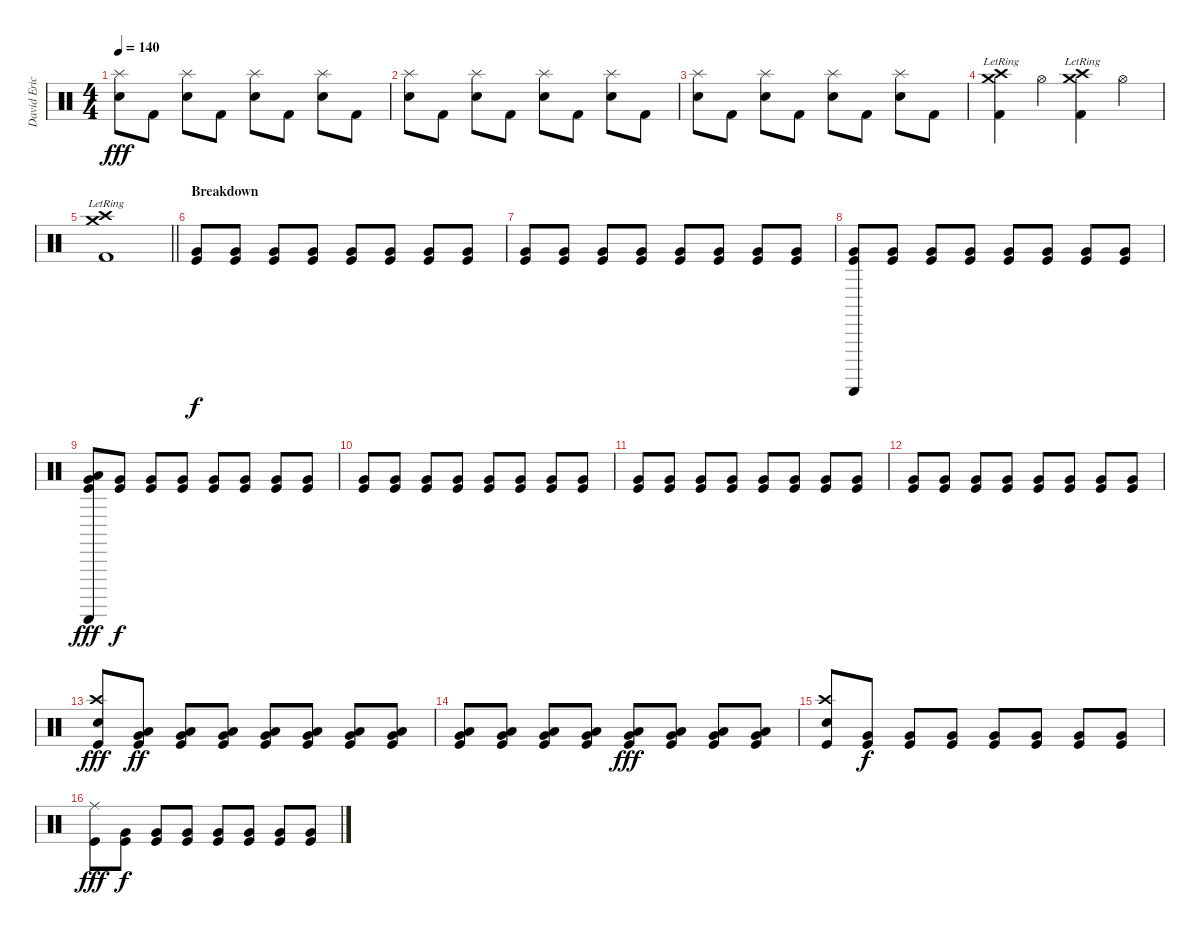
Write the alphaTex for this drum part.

\track ("David Eric Grohl" "David Eric") {instrument percussion}
\staff {score}
\articulation defaults
\ts (4 4)
\tempo 140
\clef neutral
\ks c
("Electric Snare (hit)" "Splash (hit)").8{dy fff} "Kick (hit) 2".8 ("Electric Snare (hit)" "Splash (hit)").8 "Kick (hit) 2".8 ("Electric Snare (hit)" "Splash (hit)").8 "Kick (hit) 2".8 ("Electric Snare (hit)" "Splash (hit)").8 "Kick (hit) 2".8 |
("Electric Snare (hit)" "Splash (hit)").8 "Kick (hit) 2".8 ("Electric Snare (hit)" "Splash (hit)").8 "Kick (hit) 2".8 ("Electric Snare (hit)" "Splash (hit)").8 "Kick (hit) 2".8 ("Electric Snare (hit)" "Splash (hit)").8 "Kick (hit) 2".8 |
("Electric Snare (hit)" "Splash (hit)").8 "Kick (hit) 2".8 ("Electric Snare (hit)" "Splash (hit)").8 "Kick (hit) 2".8 ("Electric Snare (hit)" "Splash (hit)").8 "Kick (hit) 2".8 ("Electric Snare (hit)" "Splash (hit)").8 "Kick (hit) 2".8 |
("Crash high (hit)"{lr} "Crash medium (hit)"{lr} "Kick (hit) 2").4 "Hi-Hat (open)".4 ("Crash high (hit)"{lr} "Crash medium (hit)" "Kick (hit) 2").4 "Hi-Hat (open)".4 |
\barLineRight lightlight
("Crash high (hit)"{lr} "Crash medium (hit)"{lr} "Kick (hit) 2").1 |
\section ("" "Breakdown")
("Very Low Tom (hit)" "Kick (hit)").8{dy f} ("Very Low Tom (hit)" "Kick (hit)").8 ("Very Low Tom (hit)" "Kick (hit)").8 ("Very Low Tom (hit)" "Kick (hit)").8 ("Very Low Tom (hit)" "Kick (hit)").8 ("Very Low Tom (hit)" "Kick (hit)").8 ("Very Low Tom (hit)" "Kick (hit)").8 ("Very Low Tom (hit)" "Kick (hit)").8 |
("Very Low Tom (hit)" "Kick (hit)").8 ("Very Low Tom (hit)" "Kick (hit)").8 ("Very Low Tom (hit)" "Kick (hit)").8 ("Very Low Tom (hit)" "Kick (hit)").8 ("Very Low Tom (hit)" "Kick (hit)").8 ("Very Low Tom (hit)" "Kick (hit)").8 ("Very Low Tom (hit)" "Kick (hit)").8 ("Very Low Tom (hit)" "Kick (hit)").8 |
("Guiro (scrap-return)" "Very Low Tom (hit)" "Kick (hit)").8 ("Very Low Tom (hit)" "Kick (hit)").8 ("Very Low Tom (hit)" "Kick (hit)").8 ("Very Low Tom (hit)" "Kick (hit)").8 ("Very Low Tom (hit)" "Kick (hit)").8 ("Very Low Tom (hit)" "Kick (hit)").8 ("Very Low Tom (hit)" "Kick (hit)").8 ("Very Low Tom (hit)" "Kick (hit)").8 |
("Guiro (scrap-return)" "Low Tom (hit)" "Very Low Tom (hit)" "Kick (hit)").8{dy fff} ("Very Low Tom (hit)" "Kick (hit)").8{dy f} ("Very Low Tom (hit)" "Kick (hit)").8 ("Very Low Tom (hit)" "Kick (hit)").8 ("Very Low Tom (hit)" "Kick (hit)").8 ("Very Low Tom (hit)" "Kick (hit)").8 ("Very Low Tom (hit)" "Kick (hit)").8 ("Very Low Tom (hit)" "Kick (hit)").8 |
("Very Low Tom (hit)" "Kick (hit)").8 ("Very Low Tom (hit)" "Kick (hit)").8 ("Very Low Tom (hit)" "Kick (hit)").8 ("Very Low Tom (hit)" "Kick (hit)").8 ("Very Low Tom (hit)" "Kick (hit)").8 ("Very Low Tom (hit)" "Kick (hit)").8 ("Very Low Tom (hit)" "Kick (hit)").8 ("Very Low Tom (hit)" "Kick (hit)").8 |
("Very Low Tom (hit)" "Kick (hit)").8 ("Very Low Tom (hit)" "Kick (hit)").8 ("Very Low Tom (hit)" "Kick (hit)").8 ("Very Low Tom (hit)" "Kick (hit)").8 ("Very Low Tom (hit)" "Kick (hit)").8 ("Very Low Tom (hit)" "Kick (hit)").8 ("Very Low Tom (hit)" "Kick (hit)").8 ("Very Low Tom (hit)" "Kick (hit)").8 |
("Very Low Tom (hit)" "Kick (hit)").8 ("Very Low Tom (hit)" "Kick (hit)").8 ("Very Low Tom (hit)" "Kick (hit)").8 ("Very Low Tom (hit)" "Kick (hit)").8 ("Very Low Tom (hit)" "Kick (hit)").8 ("Very Low Tom (hit)" "Kick (hit)").8 ("Very Low Tom (hit)" "Kick (hit)").8 ("Very Low Tom (hit)" "Kick (hit)").8 |
("Crash high (hit)" "Electric Snare (hit)" "Kick (hit)").8{dy fff} ("Low Tom (hit)" "Very Low Tom (hit)" "Kick (hit)").8{dy ff} ("Low Tom (hit)" "Very Low Tom (hit)" "Kick (hit)").8 ("Low Tom (hit)" "Very Low Tom (hit)" "Kick (hit)").8 ("Low Tom (hit)" "Very Low Tom (hit)" "Kick (hit)").8 ("Low Tom (hit)" "Very Low Tom (hit)" "Kick (hit)").8 ("Low Tom (hit)" "Very Low Tom (hit)" "Kick (hit)").8 ("Low Tom (hit)" "Very Low Tom (hit)" "Kick (hit)").8 |
("Low Tom (hit)" "Very Low Tom (hit)" "Kick (hit)").8 ("Low Tom (hit)" "Very Low Tom (hit)" "Kick (hit)").8 ("Low Tom (hit)" "Very Low Tom (hit)" "Kick (hit)").8 ("Low Tom (hit)" "Very Low Tom (hit)" "Kick (hit)").8 ("Low Tom (hit)" "Very Low Tom (hit)" "Kick (hit)").8{dy fff} ("Low Tom (hit)" "Very Low Tom (hit)" "Kick (hit)").8 ("Low Tom (hit)" "Very Low Tom (hit)" "Kick (hit)").8 ("Low Tom (hit)" "Very Low Tom (hit)" "Kick (hit)").8 |
("Crash high (hit)" "Electric Snare (hit)" "Kick (hit)").8 ("Very Low Tom (hit)" "Kick (hit)").8{dy f} ("Very Low Tom (hit)" "Kick (hit)").8 ("Very Low Tom (hit)" "Kick (hit)").8 ("Very Low Tom (hit)" "Kick (hit)").8 ("Very Low Tom (hit)" "Kick (hit)").8 ("Very Low Tom (hit)" "Kick (hit)").8 ("Very Low Tom (hit)" "Kick (hit)").8 |
("Ride (middle)" "Kick (hit)").8{dy fff} ("Very Low Tom (hit)" "Kick (hit)").8{dy f} ("Very Low Tom (hit)" "Kick (hit)").8 ("Very Low Tom (hit)" "Kick (hit)").8 ("Very Low Tom (hit)" "Kick (hit)").8 ("Very Low Tom (hit)" "Kick (hit)").8 ("Very Low Tom (hit)" "Kick (hit)").8 ("Very Low Tom (hit)" "Kick (hit)").8
